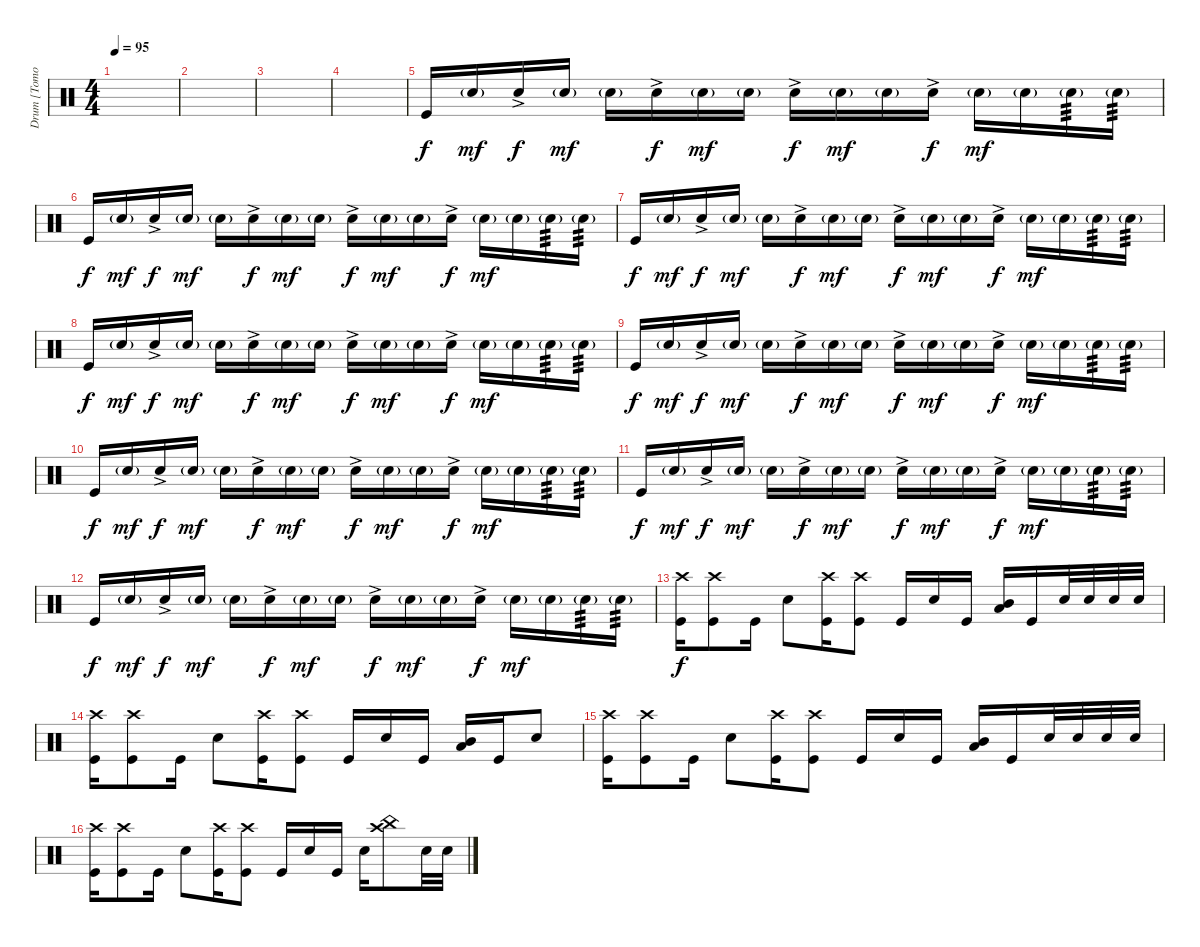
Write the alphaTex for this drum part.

\track ("Drum [Tomoya]" "Drum [Tomo") {instrument percussion}
\staff {score}
\articulation defaults
\ts (4 4)
\tempo 95
\clef neutral
\ks c
|
|
|
|
"Kick (hit)".16 "Snare (hit) 2"{g}.16{dy mf} "Snare (hit) 2"{ac}.16{dy f} "Snare (hit) 2"{g}.16{dy mf} "Snare (hit) 2"{g}.16 "Snare (hit) 2"{ac}.16{dy f} "Snare (hit) 2"{g}.16{dy mf} "Snare (hit) 2"{g}.16 "Snare (hit) 2"{ac}.16{dy f} "Snare (hit) 2"{g}.16{dy mf} "Snare (hit) 2"{g}.16 "Snare (hit) 2"{ac}.16{dy f} "Snare (hit) 2"{g}.16{dy mf} "Snare (hit) 2"{g}.16 "Snare (hit) 2"{g}.16{tp 3} "Snare (hit) 2"{g}.16{tp 3} |
"Kick (hit)".16{dy f} "Snare (hit) 2"{g}.16{dy mf} "Snare (hit) 2"{ac}.16{dy f} "Snare (hit) 2"{g}.16{dy mf} "Snare (hit) 2"{g}.16 "Snare (hit) 2"{ac}.16{dy f} "Snare (hit) 2"{g}.16{dy mf} "Snare (hit) 2"{g}.16 "Snare (hit) 2"{ac}.16{dy f} "Snare (hit) 2"{g}.16{dy mf} "Snare (hit) 2"{g}.16 "Snare (hit) 2"{ac}.16{dy f} "Snare (hit) 2"{g}.16{dy mf} "Snare (hit) 2"{g}.16 "Snare (hit) 2"{g}.16{tp 3} "Snare (hit) 2"{g}.16{tp 3} |
"Kick (hit)".16{dy f} "Snare (hit) 2"{g}.16{dy mf} "Snare (hit) 2"{ac}.16{dy f} "Snare (hit) 2"{g}.16{dy mf} "Snare (hit) 2"{g}.16 "Snare (hit) 2"{ac}.16{dy f} "Snare (hit) 2"{g}.16{dy mf} "Snare (hit) 2"{g}.16 "Snare (hit) 2"{ac}.16{dy f} "Snare (hit) 2"{g}.16{dy mf} "Snare (hit) 2"{g}.16 "Snare (hit) 2"{ac}.16{dy f} "Snare (hit) 2"{g}.16{dy mf} "Snare (hit) 2"{g}.16 "Snare (hit) 2"{g}.16{tp 3} "Snare (hit) 2"{g}.16{tp 3} |
"Kick (hit)".16{dy f} "Snare (hit) 2"{g}.16{dy mf} "Snare (hit) 2"{ac}.16{dy f} "Snare (hit) 2"{g}.16{dy mf} "Snare (hit) 2"{g}.16 "Snare (hit) 2"{ac}.16{dy f} "Snare (hit) 2"{g}.16{dy mf} "Snare (hit) 2"{g}.16 "Snare (hit) 2"{ac}.16{dy f} "Snare (hit) 2"{g}.16{dy mf} "Snare (hit) 2"{g}.16 "Snare (hit) 2"{ac}.16{dy f} "Snare (hit) 2"{g}.16{dy mf} "Snare (hit) 2"{g}.16 "Snare (hit) 2"{g}.16{tp 3} "Snare (hit) 2"{g}.16{tp 3} |
"Kick (hit)".16{dy f} "Snare (hit) 2"{g}.16{dy mf} "Snare (hit) 2"{ac}.16{dy f} "Snare (hit) 2"{g}.16{dy mf} "Snare (hit) 2"{g}.16 "Snare (hit) 2"{ac}.16{dy f} "Snare (hit) 2"{g}.16{dy mf} "Snare (hit) 2"{g}.16 "Snare (hit) 2"{ac}.16{dy f} "Snare (hit) 2"{g}.16{dy mf} "Snare (hit) 2"{g}.16 "Snare (hit) 2"{ac}.16{dy f} "Snare (hit) 2"{g}.16{dy mf} "Snare (hit) 2"{g}.16 "Snare (hit) 2"{g}.16{tp 3} "Snare (hit) 2"{g}.16{tp 3} |
"Kick (hit)".16{dy f} "Snare (hit) 2"{g}.16{dy mf} "Snare (hit) 2"{ac}.16{dy f} "Snare (hit) 2"{g}.16{dy mf} "Snare (hit) 2"{g}.16 "Snare (hit) 2"{ac}.16{dy f} "Snare (hit) 2"{g}.16{dy mf} "Snare (hit) 2"{g}.16 "Snare (hit) 2"{ac}.16{dy f} "Snare (hit) 2"{g}.16{dy mf} "Snare (hit) 2"{g}.16 "Snare (hit) 2"{ac}.16{dy f} "Snare (hit) 2"{g}.16{dy mf} "Snare (hit) 2"{g}.16 "Snare (hit) 2"{g}.16{tp 3} "Snare (hit) 2"{g}.16{tp 3} |
"Kick (hit)".16{dy f} "Snare (hit) 2"{g}.16{dy mf} "Snare (hit) 2"{ac}.16{dy f} "Snare (hit) 2"{g}.16{dy mf} "Snare (hit) 2"{g}.16 "Snare (hit) 2"{ac}.16{dy f} "Snare (hit) 2"{g}.16{dy mf} "Snare (hit) 2"{g}.16 "Snare (hit) 2"{ac}.16{dy f} "Snare (hit) 2"{g}.16{dy mf} "Snare (hit) 2"{g}.16 "Snare (hit) 2"{ac}.16{dy f} "Snare (hit) 2"{g}.16{dy mf} "Snare (hit) 2"{g}.16 "Snare (hit) 2"{g}.16{tp 3} "Snare (hit) 2"{g}.16{tp 3} |
"Kick (hit)".16{dy f} "Snare (hit) 2"{g}.16{dy mf} "Snare (hit) 2"{ac}.16{dy f} "Snare (hit) 2"{g}.16{dy mf} "Snare (hit) 2"{g}.16 "Snare (hit) 2"{ac}.16{dy f} "Snare (hit) 2"{g}.16{dy mf} "Snare (hit) 2"{g}.16 "Snare (hit) 2"{ac}.16{dy f} "Snare (hit) 2"{g}.16{dy mf} "Snare (hit) 2"{g}.16 "Snare (hit) 2"{ac}.16{dy f} "Snare (hit) 2"{g}.16{dy mf} "Snare (hit) 2"{g}.16 "Snare (hit) 2"{g}.16{tp 3} "Snare (hit) 2"{g}.16{tp 3} |
("Crash high (hit)" "Kick (hit)").16{dy f} ("Crash high (hit)" "Kick (hit)").8 "Kick (hit)".16 "Snare (hit) 2".8 ("Crash high (hit)" "Kick (hit)").16 ("Crash high (hit)" "Kick (hit)").8 "Kick (hit)".16 "Snare (hit) 2".16 "Kick (hit)".16 ("Mid Tom (hit)" "Low Tom (hit)").16 "Kick (hit)".16 "Snare (hit) 2".32 "Snare (hit) 2".32 "Snare (hit) 2".32 "Snare (hit) 2".32 |
("Crash high (hit)" "Kick (hit)").16 ("Crash high (hit)" "Kick (hit)").8 "Kick (hit)".16 "Snare (hit) 2".8 ("Crash high (hit)" "Kick (hit)").16 ("Crash high (hit)" "Kick (hit)").8 "Kick (hit)".16 "Snare (hit) 2".16 "Kick (hit)".16 ("Mid Tom (hit)" "Low Tom (hit)").16 "Kick (hit)".16 "Snare (hit) 2".8 |
("Crash high (hit)" "Kick (hit)").16 ("Crash high (hit)" "Kick (hit)").8 "Kick (hit)".16 "Snare (hit) 2".8 ("Crash high (hit)" "Kick (hit)").16 ("Crash high (hit)" "Kick (hit)").8 "Kick (hit)".16 "Snare (hit) 2".16 "Kick (hit)".16 ("Mid Tom (hit)" "Low Tom (hit)").16 "Kick (hit)".16 "Snare (hit) 2".32 "Snare (hit) 2".32 "Snare (hit) 2".32 "Snare (hit) 2".32 |
("Crash high (hit)" "Kick (hit)").16 ("Crash high (hit)" "Kick (hit)").8 "Kick (hit)".16 "Snare (hit) 2".8 ("Crash high (hit)" "Kick (hit)").16 ("Crash high (hit)" "Kick (hit)").8 "Kick (hit)".16 "Snare (hit) 2".16 "Kick (hit)".16 "Snare (hit) 2".16 ("Crash high (hit)" "China (hit)").8 "Snare (hit) 2".32 "Snare (hit) 2".32
